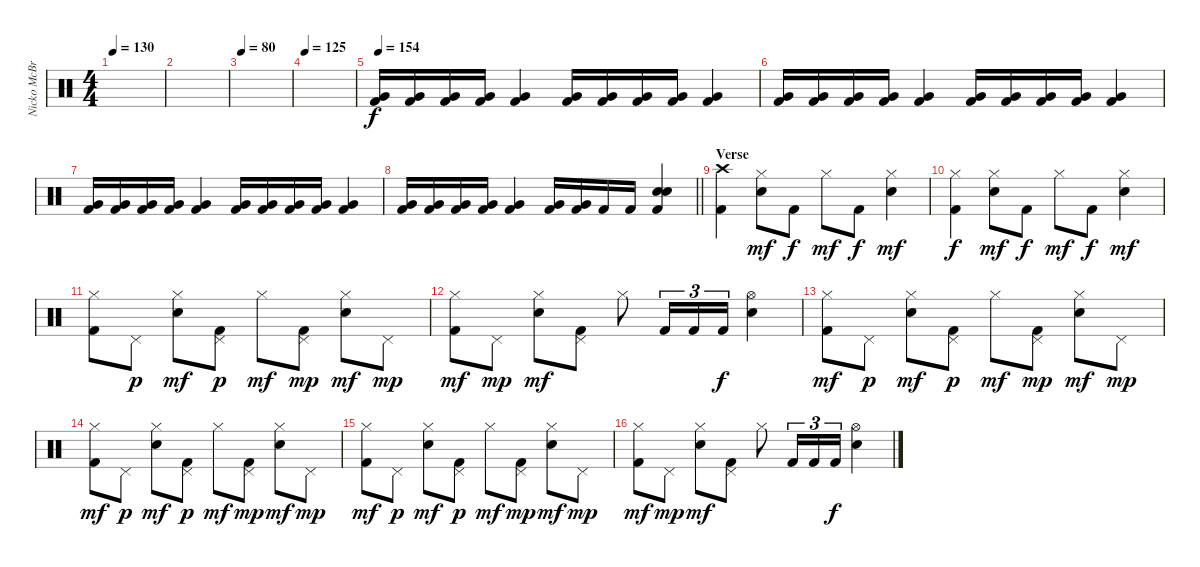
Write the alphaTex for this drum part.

\track ("Nicko McBrain" "Nicko McBr") {instrument percussion}
\staff {score}
\articulation defaults
\ts (4 4)
\tempo 130
\clef neutral
\ks c
|
|
\tempo 80
|
\tempo 125
|
\tempo 154
("Kick (hit) 2" "Very Low Tom (hit)").16 ("Kick (hit) 2" "Very Low Tom (hit)").16 ("Kick (hit) 2" "Very Low Tom (hit)").16 ("Kick (hit) 2" "Very Low Tom (hit)").16 ("Kick (hit) 2" "Very Low Tom (hit)").4 ("Kick (hit) 2" "Very Low Tom (hit)").16 ("Kick (hit) 2" "Very Low Tom (hit)").16 ("Kick (hit) 2" "Very Low Tom (hit)").16 ("Kick (hit) 2" "Very Low Tom (hit)").16 ("Kick (hit) 2" "Very Low Tom (hit)").4 |
("Kick (hit) 2" "Very Low Tom (hit)").16 ("Kick (hit) 2" "Very Low Tom (hit)").16 ("Kick (hit) 2" "Very Low Tom (hit)").16 ("Kick (hit) 2" "Very Low Tom (hit)").16 ("Kick (hit) 2" "Very Low Tom (hit)").4 ("Kick (hit) 2" "Very Low Tom (hit)").16 ("Kick (hit) 2" "Very Low Tom (hit)").16 ("Kick (hit) 2" "Very Low Tom (hit)").16 ("Kick (hit) 2" "Very Low Tom (hit)").16 ("Kick (hit) 2" "Very Low Tom (hit)").4 |
("Kick (hit) 2" "Very Low Tom (hit)").16 ("Kick (hit) 2" "Very Low Tom (hit)").16 ("Kick (hit) 2" "Very Low Tom (hit)").16 ("Kick (hit) 2" "Very Low Tom (hit)").16 ("Kick (hit) 2" "Very Low Tom (hit)").4 ("Kick (hit) 2" "Very Low Tom (hit)").16 ("Kick (hit) 2" "Very Low Tom (hit)").16 ("Kick (hit) 2" "Very Low Tom (hit)").16 ("Kick (hit) 2" "Very Low Tom (hit)").16 ("Kick (hit) 2" "Very Low Tom (hit)").4 |
\barLineRight lightlight
("Kick (hit) 2" "Very Low Tom (hit)").16 ("Kick (hit) 2" "Very Low Tom (hit)").16 ("Kick (hit) 2" "Very Low Tom (hit)").16 ("Kick (hit) 2" "Very Low Tom (hit)").16 ("Kick (hit) 2" "Very Low Tom (hit)").4 ("Kick (hit) 2" "Very Low Tom (hit)").16 ("Kick (hit) 2" "Very Low Tom (hit)").16 "Kick (hit) 2".16 "Kick (hit) 2".16 ("Kick (hit) 2" "Electric Snare (hit)" "Snare (hit) 2").4 |
\section ("" "Verse")
("Crash high (hit)" "Kick (hit) 2").4 ("Hi-Hat (closed)" "Electric Snare (hit)").8{dy mf} "Kick (hit) 2".8{dy f} "Hi-Hat (closed)".8{dy mf} "Kick (hit) 2".8{dy f} ("Hi-Hat (closed)" "Electric Snare (hit)").4{dy mf} |
("Hi-Hat (closed)" "Kick (hit) 2").4{dy f} ("Hi-Hat (closed)" "Electric Snare (hit)").8{dy mf} "Kick (hit) 2".8{dy f} "Hi-Hat (closed)".8{dy mf} "Kick (hit) 2".8{dy f} ("Hi-Hat (closed)" "Electric Snare (hit)").4{dy mf} |
("Hi-Hat (closed)" "Kick (hit) 2").8 "Pedal Hi-Hat (hit)".8{dy p} ("Hi-Hat (closed)" "Electric Snare (hit)").8{dy mf} ("Pedal Hi-Hat (hit)" "Kick (hit) 2").8{dy p} "Hi-Hat (closed)".8{dy mf} ("Pedal Hi-Hat (hit)" "Kick (hit) 2").8{dy mp} ("Hi-Hat (closed)" "Electric Snare (hit)").8{dy mf} "Pedal Hi-Hat (hit)".8{dy mp} |
("Hi-Hat (closed)" "Kick (hit) 2").8{dy mf} "Pedal Hi-Hat (hit)".8{dy mp} ("Hi-Hat (closed)" "Electric Snare (hit)").8{dy mf} ("Pedal Hi-Hat (hit)" "Kick (hit) 2").8 "Hi-Hat (closed)".8 "Kick (hit) 2".16{tu (3 2)} "Kick (hit) 2".16{tu (3 2)} "Kick (hit) 2".16{tu (3 2) dy f} ("Hi-Hat (open)" "Electric Snare (hit)").4 |
("Hi-Hat (closed)" "Kick (hit) 2").8{dy mf} "Pedal Hi-Hat (hit)".8{dy p} ("Hi-Hat (closed)" "Electric Snare (hit)").8{dy mf} ("Pedal Hi-Hat (hit)" "Kick (hit) 2").8{dy p} "Hi-Hat (closed)".8{dy mf} ("Pedal Hi-Hat (hit)" "Kick (hit) 2").8{dy mp} ("Hi-Hat (closed)" "Electric Snare (hit)").8{dy mf} "Pedal Hi-Hat (hit)".8{dy mp} |
("Hi-Hat (closed)" "Kick (hit) 2").8{dy mf} "Pedal Hi-Hat (hit)".8{dy p} ("Hi-Hat (closed)" "Electric Snare (hit)").8{dy mf} ("Pedal Hi-Hat (hit)" "Kick (hit) 2").8{dy p} "Hi-Hat (closed)".8{dy mf} ("Pedal Hi-Hat (hit)" "Kick (hit) 2").8{dy mp} ("Hi-Hat (closed)" "Electric Snare (hit)").8{dy mf} "Pedal Hi-Hat (hit)".8{dy mp} |
("Hi-Hat (closed)" "Kick (hit) 2").8{dy mf} "Pedal Hi-Hat (hit)".8{dy p} ("Hi-Hat (closed)" "Electric Snare (hit)").8{dy mf} ("Pedal Hi-Hat (hit)" "Kick (hit) 2").8{dy p} "Hi-Hat (closed)".8{dy mf} ("Pedal Hi-Hat (hit)" "Kick (hit) 2").8{dy mp} ("Hi-Hat (closed)" "Electric Snare (hit)").8{dy mf} "Pedal Hi-Hat (hit)".8{dy mp} |
("Hi-Hat (closed)" "Kick (hit) 2").8{dy mf} "Pedal Hi-Hat (hit)".8{dy mp} ("Hi-Hat (closed)" "Electric Snare (hit)").8{dy mf} ("Pedal Hi-Hat (hit)" "Kick (hit) 2").8 "Hi-Hat (closed)".8 "Kick (hit) 2".16{tu (3 2)} "Kick (hit) 2".16{tu (3 2)} "Kick (hit) 2".16{tu (3 2) dy f} ("Hi-Hat (open)" "Electric Snare (hit)").4
